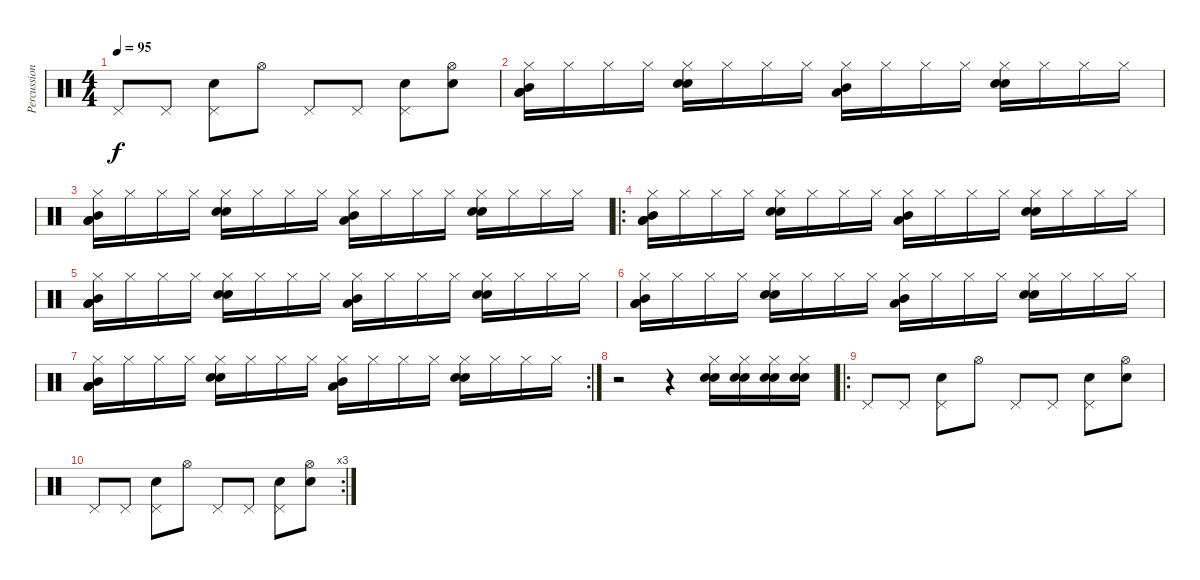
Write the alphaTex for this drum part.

\track ("Percussion" "Percussion") {instrument percussion}
\staff {score}
\articulation defaults
\ts (4 4)
\tempo 95
\clef neutral
\ks c "Pedal Hi-Hat (hit)".8{dy f} "Pedal Hi-Hat (hit)".8
("Pedal Hi-Hat (hit)" "Electric Snare (hit)").8 "Hi-Hat (open)".8 "Pedal Hi-Hat (hit)".8 "Pedal Hi-Hat (hit)".8 ("Pedal Hi-Hat (hit)" "Electric Snare (hit)").8 ("Hi-Hat (open)" "Electric Snare (hit)").8 |
("Hi-Hat (closed)" "Low Floor Tom (hit)" "Mid Tom (hit)" "Low Tom (hit)").16 "Hi-Hat (closed)".16 "Hi-Hat (closed)".16 "Hi-Hat (closed)".16 ("Hi-Hat (closed)" "Electric Snare (hit)" "Snare (hit) 2").16 "Hi-Hat (closed)".16 "Hi-Hat (closed)".16 "Hi-Hat (closed)".16 ("Hi-Hat (closed)" "Mid Tom (hit)" "Low Tom (hit)").16 "Hi-Hat (closed)".16 "Hi-Hat (closed)".16 "Hi-Hat (closed)".16 ("Hi-Hat (closed)" "Snare (hit) 2" "Electric Snare (hit)").16 "Hi-Hat (closed)".16 "Hi-Hat (closed)".16 "Hi-Hat (closed)".16 |
("Hi-Hat (closed)" "Low Floor Tom (hit)" "Mid Tom (hit)" "Low Tom (hit)").16 "Hi-Hat (closed)".16 "Hi-Hat (closed)".16 "Hi-Hat (closed)".16 ("Hi-Hat (closed)" "Electric Snare (hit)" "Snare (hit) 2").16 "Hi-Hat (closed)".16 "Hi-Hat (closed)".16 "Hi-Hat (closed)".16 ("Hi-Hat (closed)" "Mid Tom (hit)" "Low Tom (hit)").16 "Hi-Hat (closed)".16 "Hi-Hat (closed)".16 "Hi-Hat (closed)".16 ("Hi-Hat (closed)" "Snare (hit) 2" "Electric Snare (hit)").16 "Hi-Hat (closed)".16 "Hi-Hat (closed)".16 "Hi-Hat (closed)".16 |
\ro
("Hi-Hat (closed)" "Low Floor Tom (hit)" "Mid Tom (hit)" "Low Tom (hit)").16 "Hi-Hat (closed)".16 "Hi-Hat (closed)".16 "Hi-Hat (closed)".16 ("Hi-Hat (closed)" "Electric Snare (hit)" "Snare (hit) 2").16 "Hi-Hat (closed)".16 "Hi-Hat (closed)".16 "Hi-Hat (closed)".16 ("Hi-Hat (closed)" "Mid Tom (hit)" "Low Tom (hit)").16 "Hi-Hat (closed)".16 "Hi-Hat (closed)".16 "Hi-Hat (closed)".16 ("Hi-Hat (closed)" "Snare (hit) 2" "Electric Snare (hit)").16 "Hi-Hat (closed)".16 "Hi-Hat (closed)".16 "Hi-Hat (closed)".16 |
("Hi-Hat (closed)" "Low Floor Tom (hit)" "Mid Tom (hit)" "Low Tom (hit)").16 "Hi-Hat (closed)".16 "Hi-Hat (closed)".16 "Hi-Hat (closed)".16 ("Hi-Hat (closed)" "Electric Snare (hit)" "Snare (hit) 2").16 "Hi-Hat (closed)".16 "Hi-Hat (closed)".16 "Hi-Hat (closed)".16 ("Hi-Hat (closed)" "Mid Tom (hit)" "Low Tom (hit)").16 "Hi-Hat (closed)".16 "Hi-Hat (closed)".16 "Hi-Hat (closed)".16 ("Hi-Hat (closed)" "Snare (hit) 2" "Electric Snare (hit)").16 "Hi-Hat (closed)".16 "Hi-Hat (closed)".16 "Hi-Hat (closed)".16 |
("Hi-Hat (closed)" "Low Floor Tom (hit)" "Mid Tom (hit)" "Low Tom (hit)").16 "Hi-Hat (closed)".16 "Hi-Hat (closed)".16 "Hi-Hat (closed)".16 ("Hi-Hat (closed)" "Electric Snare (hit)" "Snare (hit) 2").16 "Hi-Hat (closed)".16 "Hi-Hat (closed)".16 "Hi-Hat (closed)".16 ("Hi-Hat (closed)" "Mid Tom (hit)" "Low Tom (hit)").16 "Hi-Hat (closed)".16 "Hi-Hat (closed)".16 "Hi-Hat (closed)".16 ("Hi-Hat (closed)" "Snare (hit) 2" "Electric Snare (hit)").16 "Hi-Hat (closed)".16 "Hi-Hat (closed)".16 "Hi-Hat (closed)".16 |
\rc 2
("Hi-Hat (closed)" "Low Floor Tom (hit)" "Mid Tom (hit)" "Low Tom (hit)").16 "Hi-Hat (closed)".16 "Hi-Hat (closed)".16 "Hi-Hat (closed)".16 ("Hi-Hat (closed)" "Electric Snare (hit)" "Snare (hit) 2").16 "Hi-Hat (closed)".16 "Hi-Hat (closed)".16 "Hi-Hat (closed)".16 ("Hi-Hat (closed)" "Mid Tom (hit)" "Low Tom (hit)").16 "Hi-Hat (closed)".16 "Hi-Hat (closed)".16 "Hi-Hat (closed)".16 ("Hi-Hat (closed)" "Snare (hit) 2" "Electric Snare (hit)").16 "Hi-Hat (closed)".16 "Hi-Hat (closed)".16 "Hi-Hat (closed)".16 |
r.2 r.4 ("Hi-Hat (closed)" "Snare (hit) 2" "Electric Snare (hit)").16 ("Hi-Hat (closed)" "Snare (hit) 2" "Electric Snare (hit)").16 ("Hi-Hat (closed)" "Snare (hit) 2" "Electric Snare (hit)").16 ("Hi-Hat (closed)" "Snare (hit) 2" "Electric Snare (hit)").16 |
\ro "Pedal Hi-Hat (hit)".8 "Pedal Hi-Hat (hit)".8
("Pedal Hi-Hat (hit)" "Electric Snare (hit)").8 "Hi-Hat (open)".8 "Pedal Hi-Hat (hit)".8 "Pedal Hi-Hat (hit)".8 ("Pedal Hi-Hat (hit)" "Electric Snare (hit)").8 ("Hi-Hat (open)" "Electric Snare (hit)").8 |
\rc 3 "Pedal Hi-Hat (hit)".8 "Pedal Hi-Hat (hit)".8
("Pedal Hi-Hat (hit)" "Electric Snare (hit)").8 "Hi-Hat (open)".8 "Pedal Hi-Hat (hit)".8 "Pedal Hi-Hat (hit)".8 ("Pedal Hi-Hat (hit)" "Electric Snare (hit)").8 ("Hi-Hat (open)" "Electric Snare (hit)").8
